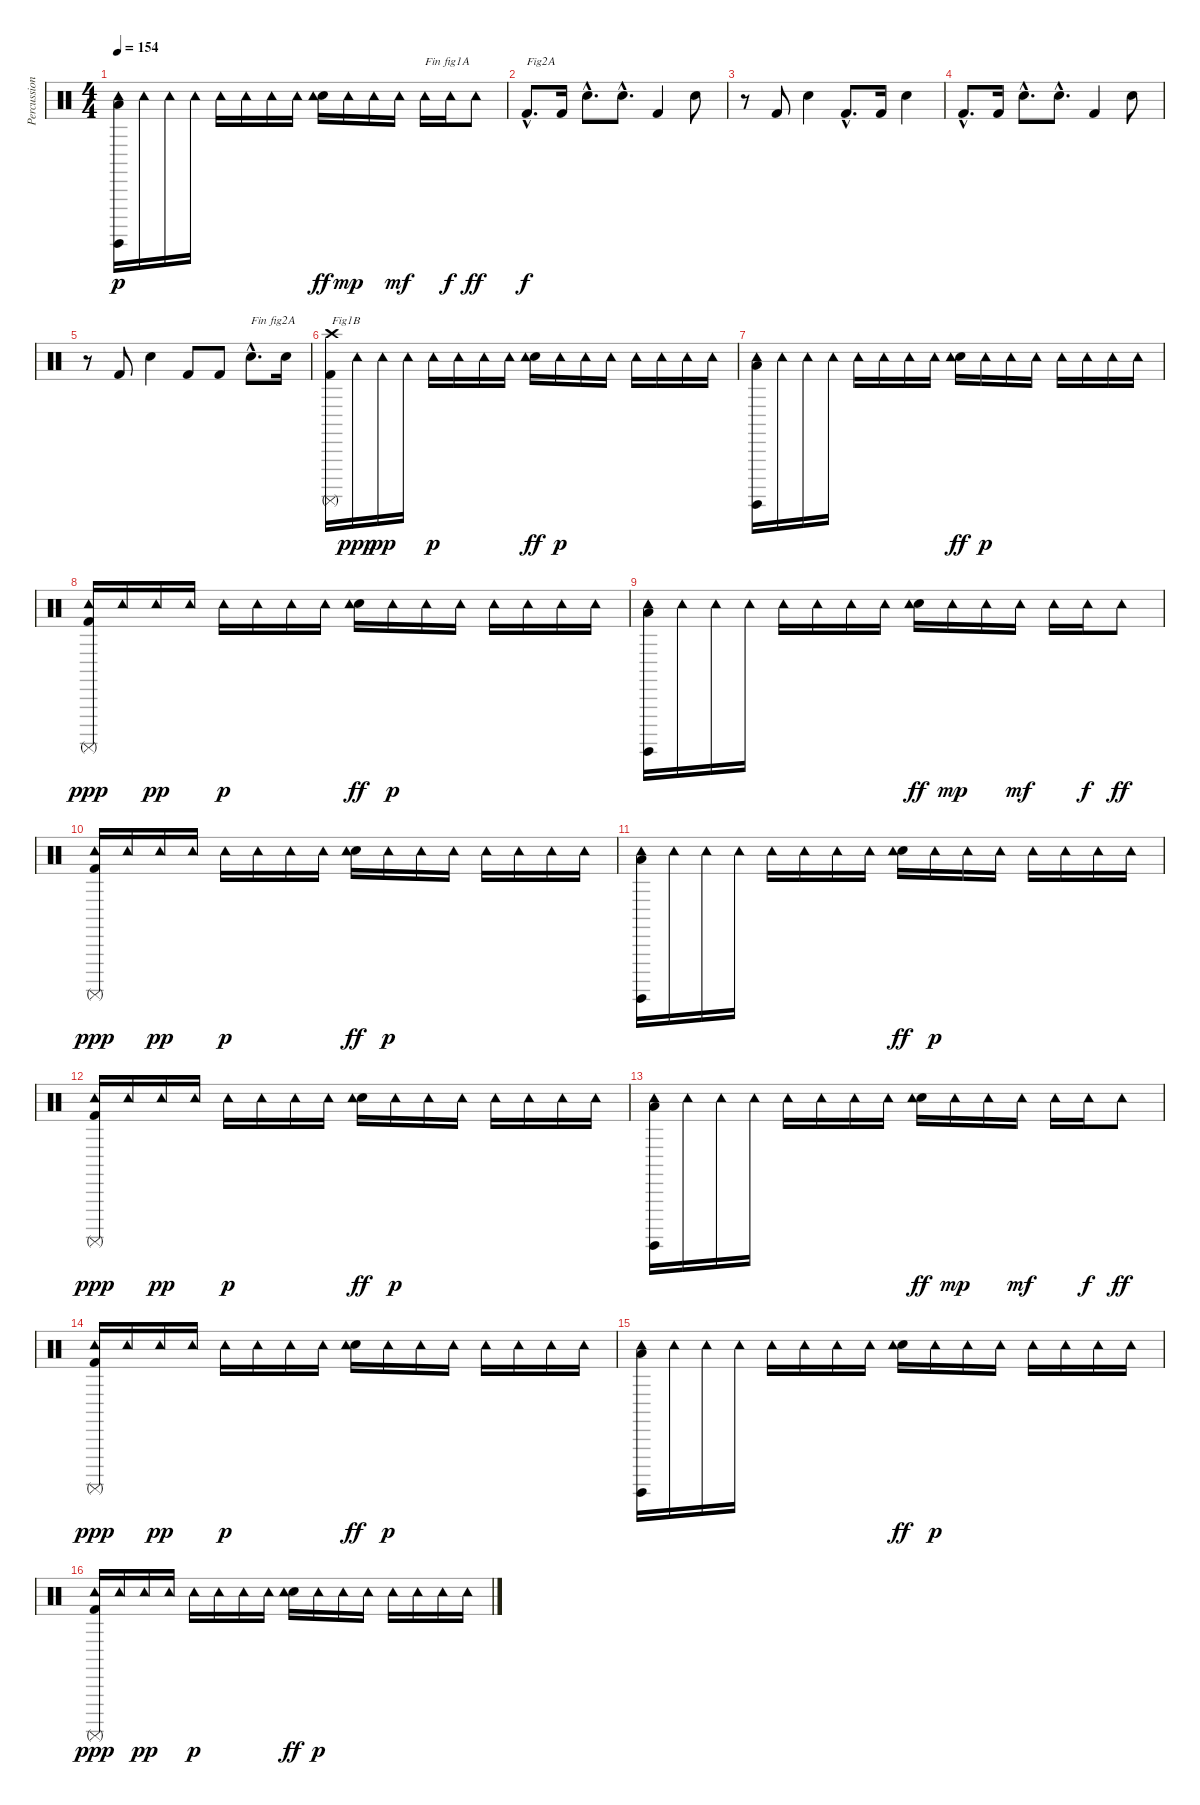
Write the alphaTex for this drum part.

\track ("Percussions" "Percussion") {instrument percussion}
\staff {score}
\articulation defaults
\ts (4 4)
\tempo 154
\clef neutral
\ks c
("Low Tom (hit)" "Surdo (hit)" "Tambourine (hit)").16{dy p} "Tambourine (hit)".16 "Tambourine (hit)".16 "Tambourine (hit)".16 "Tambourine (hit)".16 "Tambourine (hit)".16 "Tambourine (hit)".16 "Tambourine (hit)".16 ("Electric Snare (hit)" "Tambourine (hit)").16{dy ff} "Tambourine (hit)".16{dy mp} "Tambourine (hit)".16 "Tambourine (hit)".16{dy mf} "Tambourine (hit)".16{txt "Fin fig1A"} "Tambourine (hit)".16{dy f} "Tambourine (hit)".8{dy ff} |
"Kick (hit) 2"{hac}.8{d txt "Fig2A" dy f} "Kick (hit) 2".16 "Electric Snare (hit)"{hac}.8{d} "Electric Snare (hit)"{hac}.8{d} "Kick (hit) 2".4 "Electric Snare (hit)".8 |
r.8 "Kick (hit) 2".8 "Electric Snare (hit)".4 "Kick (hit) 2"{hac}.8{d} "Kick (hit) 2".16 "Electric Snare (hit)".4 |
"Kick (hit) 2"{hac}.8{d} "Kick (hit) 2".16 "Electric Snare (hit)"{hac}.8{d} "Electric Snare (hit)"{hac}.8{d} "Kick (hit) 2".4 "Electric Snare (hit)".8 |
r.8 "Kick (hit) 2".8 "Electric Snare (hit)".4 "Kick (hit) 2".8 "Kick (hit) 2".8 "Electric Snare (hit)"{hac}.8{d txt "Fin fig2A"} "Electric Snare (hit)".16 |
("Kick (hit) 2" "Surdo (mute)" "Crash high (hit)").16{txt "Fig1B"} "Tambourine (hit)".16{dy ppp} "Tambourine (hit)".16{dy pp} "Tambourine (hit)".16 "Tambourine (hit)".16{dy p} "Tambourine (hit)".16 "Tambourine (hit)".16 "Tambourine (hit)".16 ("Electric Snare (hit)" "Tambourine (hit)").16{dy ff} "Tambourine (hit)".16{dy p} "Tambourine (hit)".16 "Tambourine (hit)".16 "Tambourine (hit)".16 "Tambourine (hit)".16 "Tambourine (hit)".16 "Tambourine (hit)".16 |
("Low Tom (hit)" "Surdo (hit)" "Tambourine (hit)").16 "Tambourine (hit)".16 "Tambourine (hit)".16 "Tambourine (hit)".16 "Tambourine (hit)".16 "Tambourine (hit)".16 "Tambourine (hit)".16 "Tambourine (hit)".16 ("Electric Snare (hit)" "Tambourine (hit)").16{dy ff} "Tambourine (hit)".16{dy p} "Tambourine (hit)".16 "Tambourine (hit)".16 "Tambourine (hit)".16 "Tambourine (hit)".16 "Tambourine (hit)".16 "Tambourine (hit)".16 |
("Kick (hit) 2" "Surdo (mute)" "Tambourine (hit)").16{dy ppp} "Tambourine (hit)".16 "Tambourine (hit)".16{dy pp} "Tambourine (hit)".16 "Tambourine (hit)".16{dy p} "Tambourine (hit)".16 "Tambourine (hit)".16 "Tambourine (hit)".16 ("Electric Snare (hit)" "Tambourine (hit)").16{dy ff} "Tambourine (hit)".16{dy p} "Tambourine (hit)".16 "Tambourine (hit)".16 "Tambourine (hit)".16 "Tambourine (hit)".16 "Tambourine (hit)".16 "Tambourine (hit)".16 |
("Low Tom (hit)" "Surdo (hit)" "Tambourine (hit)").16 "Tambourine (hit)".16 "Tambourine (hit)".16 "Tambourine (hit)".16 "Tambourine (hit)".16 "Tambourine (hit)".16 "Tambourine (hit)".16 "Tambourine (hit)".16 ("Electric Snare (hit)" "Tambourine (hit)").16{dy ff} "Tambourine (hit)".16{dy mp} "Tambourine (hit)".16 "Tambourine (hit)".16{dy mf} "Tambourine (hit)".16 "Tambourine (hit)".16{dy f} "Tambourine (hit)".8{dy ff} |
("Kick (hit) 2" "Surdo (mute)" "Tambourine (hit)").16{dy ppp} "Tambourine (hit)".16 "Tambourine (hit)".16{dy pp} "Tambourine (hit)".16 "Tambourine (hit)".16{dy p} "Tambourine (hit)".16 "Tambourine (hit)".16 "Tambourine (hit)".16 ("Electric Snare (hit)" "Tambourine (hit)").16{dy ff} "Tambourine (hit)".16{dy p} "Tambourine (hit)".16 "Tambourine (hit)".16 "Tambourine (hit)".16 "Tambourine (hit)".16 "Tambourine (hit)".16 "Tambourine (hit)".16 |
("Low Tom (hit)" "Surdo (hit)" "Tambourine (hit)").16 "Tambourine (hit)".16 "Tambourine (hit)".16 "Tambourine (hit)".16 "Tambourine (hit)".16 "Tambourine (hit)".16 "Tambourine (hit)".16 "Tambourine (hit)".16 ("Electric Snare (hit)" "Tambourine (hit)").16{dy ff} "Tambourine (hit)".16{dy p} "Tambourine (hit)".16 "Tambourine (hit)".16 "Tambourine (hit)".16 "Tambourine (hit)".16 "Tambourine (hit)".16 "Tambourine (hit)".16 |
("Kick (hit) 2" "Surdo (mute)" "Tambourine (hit)").16{dy ppp} "Tambourine (hit)".16 "Tambourine (hit)".16{dy pp} "Tambourine (hit)".16 "Tambourine (hit)".16{dy p} "Tambourine (hit)".16 "Tambourine (hit)".16 "Tambourine (hit)".16 ("Electric Snare (hit)" "Tambourine (hit)").16{dy ff} "Tambourine (hit)".16{dy p} "Tambourine (hit)".16 "Tambourine (hit)".16 "Tambourine (hit)".16 "Tambourine (hit)".16 "Tambourine (hit)".16 "Tambourine (hit)".16 |
("Low Tom (hit)" "Surdo (hit)" "Tambourine (hit)").16 "Tambourine (hit)".16 "Tambourine (hit)".16 "Tambourine (hit)".16 "Tambourine (hit)".16 "Tambourine (hit)".16 "Tambourine (hit)".16 "Tambourine (hit)".16 ("Electric Snare (hit)" "Tambourine (hit)").16{dy ff} "Tambourine (hit)".16{dy mp} "Tambourine (hit)".16 "Tambourine (hit)".16{dy mf} "Tambourine (hit)".16 "Tambourine (hit)".16{dy f} "Tambourine (hit)".8{dy ff} |
("Kick (hit) 2" "Surdo (mute)" "Tambourine (hit)").16{dy ppp} "Tambourine (hit)".16 "Tambourine (hit)".16{dy pp} "Tambourine (hit)".16 "Tambourine (hit)".16{dy p} "Tambourine (hit)".16 "Tambourine (hit)".16 "Tambourine (hit)".16 ("Electric Snare (hit)" "Tambourine (hit)").16{dy ff} "Tambourine (hit)".16{dy p} "Tambourine (hit)".16 "Tambourine (hit)".16 "Tambourine (hit)".16 "Tambourine (hit)".16 "Tambourine (hit)".16 "Tambourine (hit)".16 |
("Low Tom (hit)" "Surdo (hit)" "Tambourine (hit)").16 "Tambourine (hit)".16 "Tambourine (hit)".16 "Tambourine (hit)".16 "Tambourine (hit)".16 "Tambourine (hit)".16 "Tambourine (hit)".16 "Tambourine (hit)".16 ("Electric Snare (hit)" "Tambourine (hit)").16{dy ff} "Tambourine (hit)".16{dy p} "Tambourine (hit)".16 "Tambourine (hit)".16 "Tambourine (hit)".16 "Tambourine (hit)".16 "Tambourine (hit)".16 "Tambourine (hit)".16 |
("Kick (hit) 2" "Surdo (mute)" "Tambourine (hit)").16{dy ppp} "Tambourine (hit)".16 "Tambourine (hit)".16{dy pp} "Tambourine (hit)".16 "Tambourine (hit)".16{dy p} "Tambourine (hit)".16 "Tambourine (hit)".16 "Tambourine (hit)".16 ("Electric Snare (hit)" "Tambourine (hit)").16{dy ff} "Tambourine (hit)".16{dy p} "Tambourine (hit)".16 "Tambourine (hit)".16 "Tambourine (hit)".16 "Tambourine (hit)".16 "Tambourine (hit)".16 "Tambourine (hit)".16
